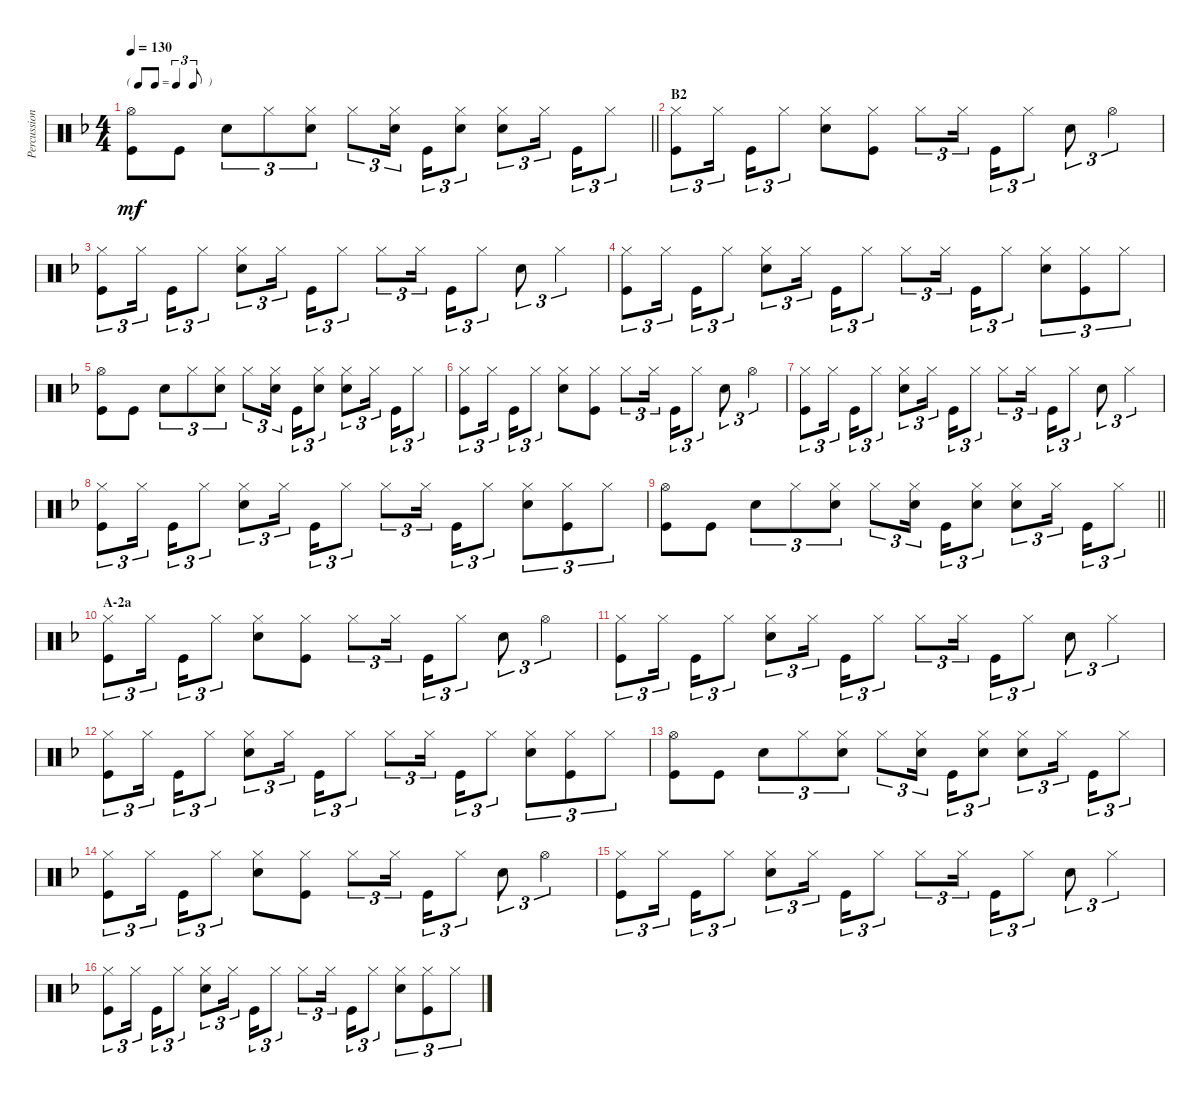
\track ("Percussion I (Tainaka Ritsu)" "Percussion") {instrument percussion}
\staff {score}
\articulation defaults
\ts (4 4)
\tf triplet8th
\tempo 130
\clef neutral
\barLineRight lightlight
\ks f
("Hi-Hat (open)" "Kick (hit)").8{dy mf} "Kick (hit)".8 "Snare (hit) 2".8{tu (3 2)} "Hi-Hat (closed)".8{tu (3 2)} ("Hi-Hat (closed)" "Snare (hit) 2").8{tu (3 2)} "Hi-Hat (closed)".8{tu (3 2)} ("Hi-Hat (closed)" "Snare (hit) 2").16{tu (3 2) beam splitsecondary} "Kick (hit)".16{tu (3 2)} ("Hi-Hat (closed)" "Snare (hit) 2").8{tu (3 2)} ("Hi-Hat (closed)" "Snare (hit) 2").8{tu (3 2)} "Hi-Hat (closed)".16{tu (3 2) beam splitsecondary} "Kick (hit)".16{tu (3 2)} "Hi-Hat (closed)".8{tu (3 2)} |
\section ("" "B2")
("Hi-Hat (closed)" "Kick (hit)").8{tu (3 2)} "Hi-Hat (closed)".16{tu (3 2) beam splitsecondary} "Kick (hit)".16{tu (3 2)} "Hi-Hat (closed)".8{tu (3 2)} ("Hi-Hat (closed)" "Snare (hit) 2").8 ("Hi-Hat (closed)" "Kick (hit)").8 "Hi-Hat (closed)".8{tu (3 2)} "Hi-Hat (closed)".16{tu (3 2) beam splitsecondary} "Kick (hit)".16{tu (3 2)} "Hi-Hat (closed)".8{tu (3 2)} "Snare (hit) 2".8{tu (3 2)} "Hi-Hat (open)".4{tu (3 2)} |
("Hi-Hat (closed)" "Kick (hit)").8{tu (3 2)} "Hi-Hat (closed)".16{tu (3 2) beam splitsecondary} "Kick (hit)".16{tu (3 2)} "Hi-Hat (closed)".8{tu (3 2)} ("Hi-Hat (closed)" "Snare (hit) 2").8{tu (3 2)} "Hi-Hat (closed)".16{tu (3 2) beam splitsecondary} "Kick (hit)".16{tu (3 2)} "Hi-Hat (closed)".8{tu (3 2)} "Hi-Hat (closed)".8{tu (3 2)} "Hi-Hat (closed)".16{tu (3 2) beam splitsecondary} "Kick (hit)".16{tu (3 2)} "Hi-Hat (closed)".8{tu (3 2)} "Snare (hit) 2".8{tu (3 2)} "Hi-Hat (closed)".4{tu (3 2)} |
("Hi-Hat (closed)" "Kick (hit)").8{tu (3 2)} "Hi-Hat (closed)".16{tu (3 2) beam splitsecondary} "Kick (hit)".16{tu (3 2)} "Hi-Hat (closed)".8{tu (3 2)} ("Hi-Hat (closed)" "Snare (hit) 2").8{tu (3 2)} "Hi-Hat (closed)".16{tu (3 2) beam splitsecondary} "Kick (hit)".16{tu (3 2)} "Hi-Hat (closed)".8{tu (3 2)} "Hi-Hat (closed)".8{tu (3 2)} "Hi-Hat (closed)".16{tu (3 2) beam splitsecondary} "Kick (hit)".16{tu (3 2)} "Hi-Hat (closed)".8{tu (3 2)} ("Hi-Hat (closed)" "Snare (hit) 2").8{tu (3 2)} ("Hi-Hat (closed)" "Kick (hit)").8{tu (3 2)} "Hi-Hat (closed)".8{tu (3 2)} |
("Hi-Hat (open)" "Kick (hit)").8 "Kick (hit)".8 "Snare (hit) 2".8{tu (3 2)} "Hi-Hat (closed)".8{tu (3 2)} ("Hi-Hat (closed)" "Snare (hit) 2").8{tu (3 2)} "Hi-Hat (closed)".8{tu (3 2)} ("Hi-Hat (closed)" "Snare (hit) 2").16{tu (3 2) beam splitsecondary} "Kick (hit)".16{tu (3 2)} ("Hi-Hat (closed)" "Snare (hit) 2").8{tu (3 2)} ("Hi-Hat (closed)" "Snare (hit) 2").8{tu (3 2)} "Hi-Hat (closed)".16{tu (3 2) beam splitsecondary} "Kick (hit)".16{tu (3 2)} "Hi-Hat (closed)".8{tu (3 2)} |
("Hi-Hat (closed)" "Kick (hit)").8{tu (3 2)} "Hi-Hat (closed)".16{tu (3 2) beam splitsecondary} "Kick (hit)".16{tu (3 2)} "Hi-Hat (closed)".8{tu (3 2)} ("Hi-Hat (closed)" "Snare (hit) 2").8 ("Hi-Hat (closed)" "Kick (hit)").8 "Hi-Hat (closed)".8{tu (3 2)} "Hi-Hat (closed)".16{tu (3 2) beam splitsecondary} "Kick (hit)".16{tu (3 2)} "Hi-Hat (closed)".8{tu (3 2)} "Snare (hit) 2".8{tu (3 2)} "Hi-Hat (open)".4{tu (3 2)} |
("Hi-Hat (closed)" "Kick (hit)").8{tu (3 2)} "Hi-Hat (closed)".16{tu (3 2) beam splitsecondary} "Kick (hit)".16{tu (3 2)} "Hi-Hat (closed)".8{tu (3 2)} ("Hi-Hat (closed)" "Snare (hit) 2").8{tu (3 2)} "Hi-Hat (closed)".16{tu (3 2) beam splitsecondary} "Kick (hit)".16{tu (3 2)} "Hi-Hat (closed)".8{tu (3 2)} "Hi-Hat (closed)".8{tu (3 2)} "Hi-Hat (closed)".16{tu (3 2) beam splitsecondary} "Kick (hit)".16{tu (3 2)} "Hi-Hat (closed)".8{tu (3 2)} "Snare (hit) 2".8{tu (3 2)} "Hi-Hat (closed)".4{tu (3 2)} |
("Hi-Hat (closed)" "Kick (hit)").8{tu (3 2)} "Hi-Hat (closed)".16{tu (3 2) beam splitsecondary} "Kick (hit)".16{tu (3 2)} "Hi-Hat (closed)".8{tu (3 2)} ("Hi-Hat (closed)" "Snare (hit) 2").8{tu (3 2)} "Hi-Hat (closed)".16{tu (3 2) beam splitsecondary} "Kick (hit)".16{tu (3 2)} "Hi-Hat (closed)".8{tu (3 2)} "Hi-Hat (closed)".8{tu (3 2)} "Hi-Hat (closed)".16{tu (3 2) beam splitsecondary} "Kick (hit)".16{tu (3 2)} "Hi-Hat (closed)".8{tu (3 2)} ("Hi-Hat (closed)" "Snare (hit) 2").8{tu (3 2)} ("Hi-Hat (closed)" "Kick (hit)").8{tu (3 2)} "Hi-Hat (closed)".8{tu (3 2)} |
\barLineRight lightlight
("Hi-Hat (open)" "Kick (hit)").8 "Kick (hit)".8 "Snare (hit) 2".8{tu (3 2)} "Hi-Hat (closed)".8{tu (3 2)} ("Hi-Hat (closed)" "Snare (hit) 2").8{tu (3 2)} "Hi-Hat (closed)".8{tu (3 2)} ("Hi-Hat (closed)" "Snare (hit) 2").16{tu (3 2) beam splitsecondary} "Kick (hit)".16{tu (3 2)} ("Hi-Hat (closed)" "Snare (hit) 2").8{tu (3 2)} ("Hi-Hat (closed)" "Snare (hit) 2").8{tu (3 2)} "Hi-Hat (closed)".16{tu (3 2) beam splitsecondary} "Kick (hit)".16{tu (3 2)} "Hi-Hat (closed)".8{tu (3 2)} |
\section ("" "A-2a")
("Hi-Hat (closed)" "Kick (hit)").8{tu (3 2)} "Hi-Hat (closed)".16{tu (3 2) beam splitsecondary} "Kick (hit)".16{tu (3 2)} "Hi-Hat (closed)".8{tu (3 2)} ("Hi-Hat (closed)" "Snare (hit) 2").8 ("Hi-Hat (closed)" "Kick (hit)").8 "Hi-Hat (closed)".8{tu (3 2)} "Hi-Hat (closed)".16{tu (3 2) beam splitsecondary} "Kick (hit)".16{tu (3 2)} "Hi-Hat (closed)".8{tu (3 2)} "Snare (hit) 2".8{tu (3 2)} "Hi-Hat (open)".4{tu (3 2)} |
("Hi-Hat (closed)" "Kick (hit)").8{tu (3 2)} "Hi-Hat (closed)".16{tu (3 2) beam splitsecondary} "Kick (hit)".16{tu (3 2)} "Hi-Hat (closed)".8{tu (3 2)} ("Hi-Hat (closed)" "Snare (hit) 2").8{tu (3 2)} "Hi-Hat (closed)".16{tu (3 2) beam splitsecondary} "Kick (hit)".16{tu (3 2)} "Hi-Hat (closed)".8{tu (3 2)} "Hi-Hat (closed)".8{tu (3 2)} "Hi-Hat (closed)".16{tu (3 2) beam splitsecondary} "Kick (hit)".16{tu (3 2)} "Hi-Hat (closed)".8{tu (3 2)} "Snare (hit) 2".8{tu (3 2)} "Hi-Hat (closed)".4{tu (3 2)} |
("Hi-Hat (closed)" "Kick (hit)").8{tu (3 2)} "Hi-Hat (closed)".16{tu (3 2) beam splitsecondary} "Kick (hit)".16{tu (3 2)} "Hi-Hat (closed)".8{tu (3 2)} ("Hi-Hat (closed)" "Snare (hit) 2").8{tu (3 2)} "Hi-Hat (closed)".16{tu (3 2) beam splitsecondary} "Kick (hit)".16{tu (3 2)} "Hi-Hat (closed)".8{tu (3 2)} "Hi-Hat (closed)".8{tu (3 2)} "Hi-Hat (closed)".16{tu (3 2) beam splitsecondary} "Kick (hit)".16{tu (3 2)} "Hi-Hat (closed)".8{tu (3 2)} ("Hi-Hat (closed)" "Snare (hit) 2").8{tu (3 2)} ("Hi-Hat (closed)" "Kick (hit)").8{tu (3 2)} "Hi-Hat (closed)".8{tu (3 2)} |
("Hi-Hat (open)" "Kick (hit)").8 "Kick (hit)".8 "Snare (hit) 2".8{tu (3 2)} "Hi-Hat (closed)".8{tu (3 2)} ("Hi-Hat (closed)" "Snare (hit) 2").8{tu (3 2)} "Hi-Hat (closed)".8{tu (3 2)} ("Hi-Hat (closed)" "Snare (hit) 2").16{tu (3 2) beam splitsecondary} "Kick (hit)".16{tu (3 2)} ("Hi-Hat (closed)" "Snare (hit) 2").8{tu (3 2)} ("Hi-Hat (closed)" "Snare (hit) 2").8{tu (3 2)} "Hi-Hat (closed)".16{tu (3 2) beam splitsecondary} "Kick (hit)".16{tu (3 2)} "Hi-Hat (closed)".8{tu (3 2)} |
("Hi-Hat (closed)" "Kick (hit)").8{tu (3 2)} "Hi-Hat (closed)".16{tu (3 2) beam splitsecondary} "Kick (hit)".16{tu (3 2)} "Hi-Hat (closed)".8{tu (3 2)} ("Hi-Hat (closed)" "Snare (hit) 2").8 ("Hi-Hat (closed)" "Kick (hit)").8 "Hi-Hat (closed)".8{tu (3 2)} "Hi-Hat (closed)".16{tu (3 2) beam splitsecondary} "Kick (hit)".16{tu (3 2)} "Hi-Hat (closed)".8{tu (3 2)} "Snare (hit) 2".8{tu (3 2)} "Hi-Hat (open)".4{tu (3 2)} |
("Hi-Hat (closed)" "Kick (hit)").8{tu (3 2)} "Hi-Hat (closed)".16{tu (3 2) beam splitsecondary} "Kick (hit)".16{tu (3 2)} "Hi-Hat (closed)".8{tu (3 2)} ("Hi-Hat (closed)" "Snare (hit) 2").8{tu (3 2)} "Hi-Hat (closed)".16{tu (3 2) beam splitsecondary} "Kick (hit)".16{tu (3 2)} "Hi-Hat (closed)".8{tu (3 2)} "Hi-Hat (closed)".8{tu (3 2)} "Hi-Hat (closed)".16{tu (3 2) beam splitsecondary} "Kick (hit)".16{tu (3 2)} "Hi-Hat (closed)".8{tu (3 2)} "Snare (hit) 2".8{tu (3 2)} "Hi-Hat (closed)".4{tu (3 2)} |
("Hi-Hat (closed)" "Kick (hit)").8{tu (3 2)} "Hi-Hat (closed)".16{tu (3 2) beam splitsecondary} "Kick (hit)".16{tu (3 2)} "Hi-Hat (closed)".8{tu (3 2)} ("Hi-Hat (closed)" "Snare (hit) 2").8{tu (3 2)} "Hi-Hat (closed)".16{tu (3 2) beam splitsecondary} "Kick (hit)".16{tu (3 2)} "Hi-Hat (closed)".8{tu (3 2)} "Hi-Hat (closed)".8{tu (3 2)} "Hi-Hat (closed)".16{tu (3 2) beam splitsecondary} "Kick (hit)".16{tu (3 2)} "Hi-Hat (closed)".8{tu (3 2)} ("Hi-Hat (closed)" "Snare (hit) 2").8{tu (3 2)} ("Hi-Hat (closed)" "Kick (hit)").8{tu (3 2)} "Hi-Hat (closed)".8{tu (3 2)}
